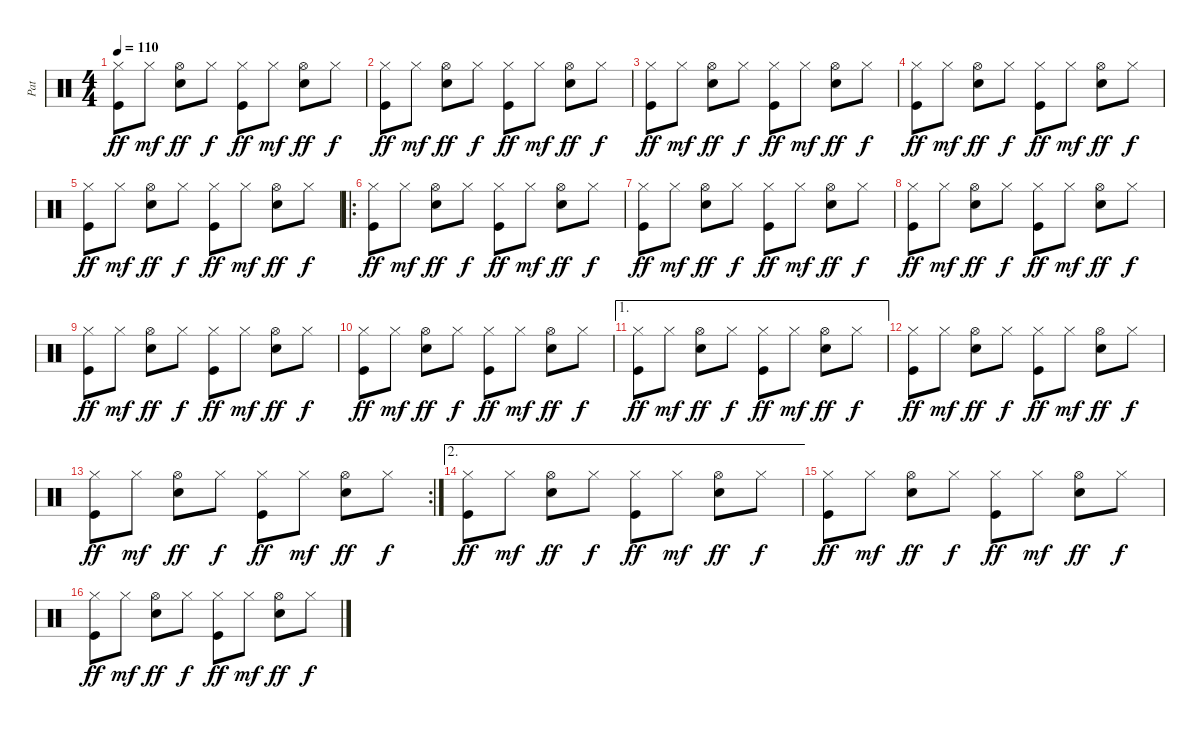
\track ("Pat" "Pat") {instrument percussion}
\staff {score}
\articulation defaults
\ts (4 4)
\tempo 110
\clef neutral
\ks c
("Hi-Hat (closed)" "Kick (hit)").8{dy ff} "Hi-Hat (closed)".8{dy mf} ("Hi-Hat (open)" "Snare (hit) 2").8{dy ff} "Hi-Hat (closed)".8{dy f} ("Hi-Hat (closed)" "Kick (hit)").8{dy ff} "Hi-Hat (closed)".8{dy mf} ("Hi-Hat (open)" "Snare (hit) 2").8{dy ff} "Hi-Hat (closed)".8{dy f} |
("Hi-Hat (closed)" "Kick (hit)").8{dy ff} "Hi-Hat (closed)".8{dy mf} ("Hi-Hat (open)" "Snare (hit) 2").8{dy ff} "Hi-Hat (closed)".8{dy f} ("Hi-Hat (closed)" "Kick (hit)").8{dy ff} "Hi-Hat (closed)".8{dy mf} ("Hi-Hat (open)" "Snare (hit) 2").8{dy ff} "Hi-Hat (closed)".8{dy f} |
("Hi-Hat (closed)" "Kick (hit)").8{dy ff} "Hi-Hat (closed)".8{dy mf} ("Hi-Hat (open)" "Snare (hit) 2").8{dy ff} "Hi-Hat (closed)".8{dy f} ("Hi-Hat (closed)" "Kick (hit)").8{dy ff} "Hi-Hat (closed)".8{dy mf} ("Hi-Hat (open)" "Snare (hit) 2").8{dy ff} "Hi-Hat (closed)".8{dy f} |
("Hi-Hat (closed)" "Kick (hit)").8{dy ff} "Hi-Hat (closed)".8{dy mf} ("Hi-Hat (open)" "Snare (hit) 2").8{dy ff} "Hi-Hat (closed)".8{dy f} ("Hi-Hat (closed)" "Kick (hit)").8{dy ff} "Hi-Hat (closed)".8{dy mf} ("Hi-Hat (open)" "Snare (hit) 2").8{dy ff} "Hi-Hat (closed)".8{dy f} |
("Hi-Hat (closed)" "Kick (hit)").8{dy ff} "Hi-Hat (closed)".8{dy mf} ("Hi-Hat (open)" "Snare (hit) 2").8{dy ff} "Hi-Hat (closed)".8{dy f} ("Hi-Hat (closed)" "Kick (hit)").8{dy ff} "Hi-Hat (closed)".8{dy mf} ("Hi-Hat (open)" "Snare (hit) 2").8{dy ff} "Hi-Hat (closed)".8{dy f} |
\ro
("Hi-Hat (closed)" "Kick (hit)").8{dy ff} "Hi-Hat (closed)".8{dy mf} ("Hi-Hat (open)" "Snare (hit) 2").8{dy ff} "Hi-Hat (closed)".8{dy f} ("Hi-Hat (closed)" "Kick (hit)").8{dy ff} "Hi-Hat (closed)".8{dy mf} ("Hi-Hat (open)" "Snare (hit) 2").8{dy ff} "Hi-Hat (closed)".8{dy f} |
("Hi-Hat (closed)" "Kick (hit)").8{dy ff} "Hi-Hat (closed)".8{dy mf} ("Hi-Hat (open)" "Snare (hit) 2").8{dy ff} "Hi-Hat (closed)".8{dy f} ("Hi-Hat (closed)" "Kick (hit)").8{dy ff} "Hi-Hat (closed)".8{dy mf} ("Hi-Hat (open)" "Snare (hit) 2").8{dy ff} "Hi-Hat (closed)".8{dy f} |
("Hi-Hat (closed)" "Kick (hit)").8{dy ff} "Hi-Hat (closed)".8{dy mf} ("Hi-Hat (open)" "Snare (hit) 2").8{dy ff} "Hi-Hat (closed)".8{dy f} ("Hi-Hat (closed)" "Kick (hit)").8{dy ff} "Hi-Hat (closed)".8{dy mf} ("Hi-Hat (open)" "Snare (hit) 2").8{dy ff} "Hi-Hat (closed)".8{dy f} |
("Hi-Hat (closed)" "Kick (hit)").8{dy ff} "Hi-Hat (closed)".8{dy mf} ("Hi-Hat (open)" "Snare (hit) 2").8{dy ff} "Hi-Hat (closed)".8{dy f} ("Hi-Hat (closed)" "Kick (hit)").8{dy ff} "Hi-Hat (closed)".8{dy mf} ("Hi-Hat (open)" "Snare (hit) 2").8{dy ff} "Hi-Hat (closed)".8{dy f} |
("Hi-Hat (closed)" "Kick (hit)").8{dy ff} "Hi-Hat (closed)".8{dy mf} ("Hi-Hat (open)" "Snare (hit) 2").8{dy ff} "Hi-Hat (closed)".8{dy f} ("Hi-Hat (closed)" "Kick (hit)").8{dy ff} "Hi-Hat (closed)".8{dy mf} ("Hi-Hat (open)" "Snare (hit) 2").8{dy ff} "Hi-Hat (closed)".8{dy f} |
\ae 1
("Hi-Hat (closed)" "Kick (hit)").8{dy ff} "Hi-Hat (closed)".8{dy mf} ("Hi-Hat (open)" "Snare (hit) 2").8{dy ff} "Hi-Hat (closed)".8{dy f} ("Hi-Hat (closed)" "Kick (hit)").8{dy ff} "Hi-Hat (closed)".8{dy mf} ("Hi-Hat (open)" "Snare (hit) 2").8{dy ff} "Hi-Hat (closed)".8{dy f} |
("Hi-Hat (closed)" "Kick (hit)").8{dy ff} "Hi-Hat (closed)".8{dy mf} ("Hi-Hat (open)" "Snare (hit) 2").8{dy ff} "Hi-Hat (closed)".8{dy f} ("Hi-Hat (closed)" "Kick (hit)").8{dy ff} "Hi-Hat (closed)".8{dy mf} ("Hi-Hat (open)" "Snare (hit) 2").8{dy ff} "Hi-Hat (closed)".8{dy f} |
\rc 2
("Hi-Hat (closed)" "Kick (hit)").8{dy ff} "Hi-Hat (closed)".8{dy mf} ("Hi-Hat (open)" "Snare (hit) 2").8{dy ff} "Hi-Hat (closed)".8{dy f} ("Hi-Hat (closed)" "Kick (hit)").8{dy ff} "Hi-Hat (closed)".8{dy mf} ("Hi-Hat (open)" "Snare (hit) 2").8{dy ff} "Hi-Hat (closed)".8{dy f} |
\ae 2
("Hi-Hat (closed)" "Kick (hit)").8{dy ff} "Hi-Hat (closed)".8{dy mf} ("Hi-Hat (open)" "Snare (hit) 2").8{dy ff} "Hi-Hat (closed)".8{dy f} ("Hi-Hat (closed)" "Kick (hit)").8{dy ff} "Hi-Hat (closed)".8{dy mf} ("Hi-Hat (open)" "Snare (hit) 2").8{dy ff} "Hi-Hat (closed)".8{dy f} |
("Hi-Hat (closed)" "Kick (hit)").8{dy ff} "Hi-Hat (closed)".8{dy mf} ("Hi-Hat (open)" "Snare (hit) 2").8{dy ff} "Hi-Hat (closed)".8{dy f} ("Hi-Hat (closed)" "Kick (hit)").8{dy ff} "Hi-Hat (closed)".8{dy mf} ("Hi-Hat (open)" "Snare (hit) 2").8{dy ff} "Hi-Hat (closed)".8{dy f} |
("Hi-Hat (closed)" "Kick (hit)").8{dy ff} "Hi-Hat (closed)".8{dy mf} ("Hi-Hat (open)" "Snare (hit) 2").8{dy ff} "Hi-Hat (closed)".8{dy f} ("Hi-Hat (closed)" "Kick (hit)").8{dy ff} "Hi-Hat (closed)".8{dy mf} ("Hi-Hat (open)" "Snare (hit) 2").8{dy ff} "Hi-Hat (closed)".8{dy f}
